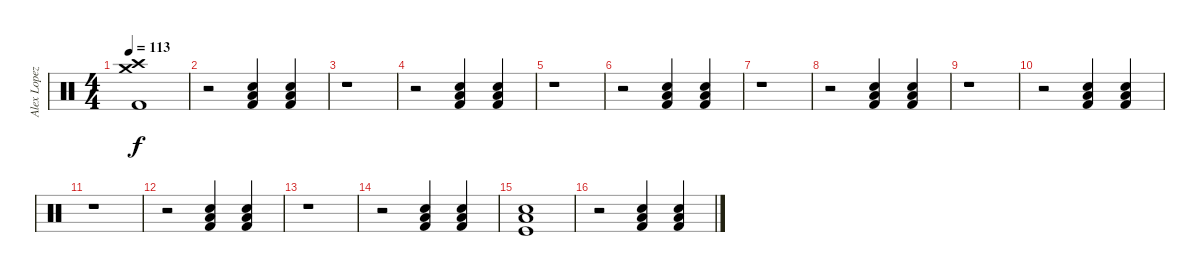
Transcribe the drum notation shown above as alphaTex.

\track ("Alex Lopez" "Alex Lopez") {instrument percussion}
\staff {score}
\articulation defaults
\ts (4 4)
\tempo 113
\clef neutral
\ks c
("Crash medium (hit)" "Crash high (hit)" "Kick (hit) 2").1{dy f} |
r.2 ("Low Tom (hit)" "Snare (hit) 2" "Kick (hit) 2").4 ("Low Tom (hit)" "Snare (hit) 2" "Kick (hit) 2").4 |
r.1 |
r.2 ("Low Tom (hit)" "Snare (hit) 2" "Kick (hit) 2").4 ("Low Tom (hit)" "Snare (hit) 2" "Kick (hit) 2").4 |
r.1 |
r.2 ("Low Tom (hit)" "Snare (hit) 2" "Kick (hit) 2").4 ("Low Tom (hit)" "Snare (hit) 2" "Kick (hit) 2").4 |
r.1 |
r.2 ("Low Tom (hit)" "Snare (hit) 2" "Kick (hit) 2").4 ("Low Tom (hit)" "Snare (hit) 2" "Kick (hit) 2").4 |
r.1 |
r.2 ("Low Tom (hit)" "Snare (hit) 2" "Kick (hit) 2").4 ("Low Tom (hit)" "Snare (hit) 2" "Kick (hit) 2").4 |
r.1 |
r.2 ("Low Tom (hit)" "Snare (hit) 2" "Kick (hit) 2").4 ("Low Tom (hit)" "Snare (hit) 2" "Kick (hit) 2").4 |
r.1 |
r.2 ("Low Tom (hit)" "Snare (hit) 2" "Kick (hit) 2").4 ("Low Tom (hit)" "Snare (hit) 2" "Kick (hit) 2").4 |
("Low Tom (hit)" "Snare (hit) 2" "Kick (hit)").1 |
r.2 ("Low Tom (hit)" "Snare (hit) 2" "Kick (hit) 2").4 ("Low Tom (hit)" "Snare (hit) 2" "Kick (hit) 2").4
